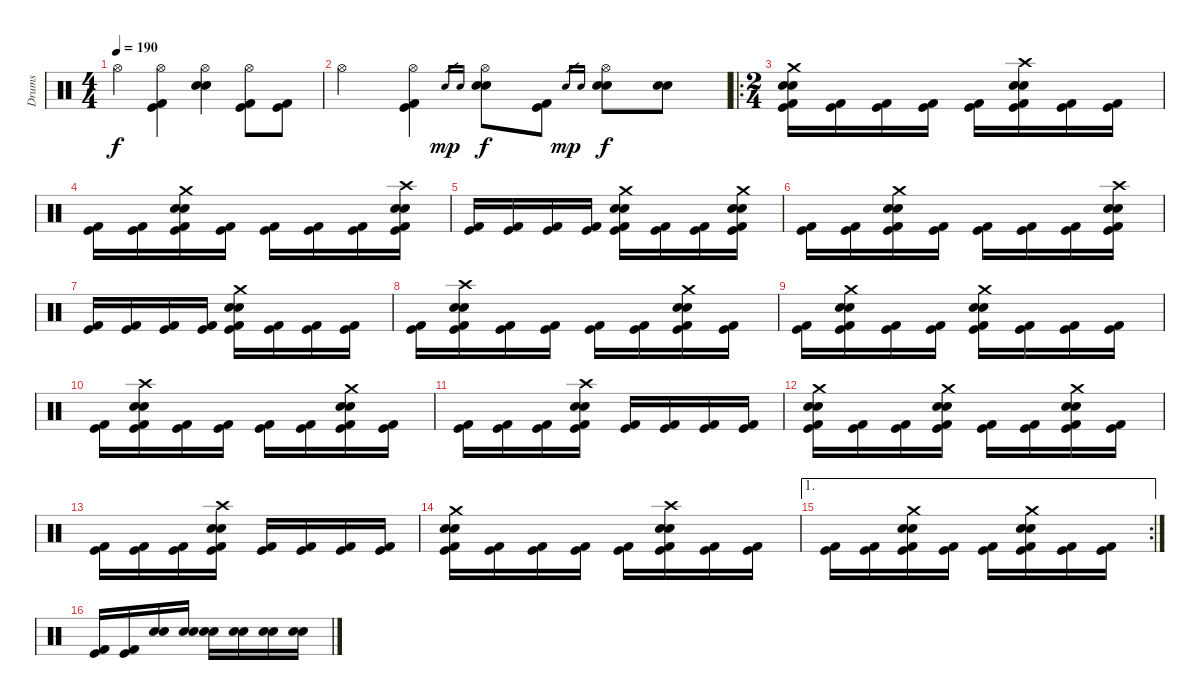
\track ("Drums" "Drums") {instrument percussion}
\staff {score}
\articulation defaults
\ts (4 4)
\tempo 190
\clef neutral
\ks c "Hi-Hat (open)".4{dy f}
("Hi-Hat (open)" "Kick (hit) 2" "Kick (hit)").4 ("Hi-Hat (open)" "Snare (hit) 2" "Snare (hit) 2").4 ("Hi-Hat (open)" "Kick (hit) 2" "Kick (hit)").8 ("Kick (hit) 2" "Kick (hit)").8 |
"Hi-Hat (open)".4 ("Hi-Hat (open)" "Kick (hit) 2" "Kick (hit)").4 "Snare (hit) 2".16{gr dy mp} "Snare (hit) 2".16{gr} ("Hi-Hat (open)" "Snare (hit) 2" "Snare (hit) 2").8{dy f} ("Kick (hit) 2" "Kick (hit)").8 "Snare (hit) 2".16{gr dy mp} "Snare (hit) 2".16{gr} ("Hi-Hat (open)" "Snare (hit) 2" "Snare (hit) 2").8{dy f} ("Snare (hit) 2" "Snare (hit) 2").8 |
\ro
\ts (2 4)
("Crash medium (hit)" "Snare (hit) 2" "Snare (hit) 2" "Kick (hit) 2" "Kick (hit)").16 ("Kick (hit) 2" "Kick (hit)").16 ("Kick (hit) 2" "Kick (hit)").16 ("Kick (hit) 2" "Kick (hit)").16 ("Kick (hit) 2" "Kick (hit)").16 ("Crash high (hit)" "Snare (hit) 2" "Snare (hit) 2" "Kick (hit) 2" "Kick (hit)").16 ("Kick (hit) 2" "Kick (hit)").16 ("Kick (hit) 2" "Kick (hit)").16 |
("Kick (hit) 2" "Kick (hit)").16 ("Kick (hit) 2" "Kick (hit)").16 ("Crash medium (hit)" "Snare (hit) 2" "Snare (hit) 2" "Kick (hit) 2" "Kick (hit)").16 ("Kick (hit) 2" "Kick (hit)").16 ("Kick (hit) 2" "Kick (hit)").16 ("Kick (hit) 2" "Kick (hit)").16 ("Kick (hit) 2" "Kick (hit)").16 ("Crash high (hit)" "Snare (hit) 2" "Snare (hit) 2" "Kick (hit) 2" "Kick (hit)").16 |
("Kick (hit) 2" "Kick (hit)").16 ("Kick (hit) 2" "Kick (hit)").16 ("Kick (hit) 2" "Kick (hit)").16 ("Kick (hit) 2" "Kick (hit)").16 ("Crash medium (hit)" "Snare (hit) 2" "Snare (hit) 2" "Kick (hit) 2" "Kick (hit)").16 ("Kick (hit) 2" "Kick (hit)").16 ("Kick (hit) 2" "Kick (hit)").16 ("Crash medium (hit)" "Snare (hit) 2" "Snare (hit) 2" "Kick (hit) 2" "Kick (hit)").16 |
("Kick (hit) 2" "Kick (hit)").16 ("Kick (hit) 2" "Kick (hit)").16 ("Crash medium (hit)" "Snare (hit) 2" "Snare (hit) 2" "Kick (hit) 2" "Kick (hit)").16 ("Kick (hit) 2" "Kick (hit)").16 ("Kick (hit) 2" "Kick (hit)").16 ("Kick (hit) 2" "Kick (hit)").16 ("Kick (hit) 2" "Kick (hit)").16 ("Crash high (hit)" "Snare (hit) 2" "Snare (hit) 2" "Kick (hit) 2" "Kick (hit)").16 |
("Kick (hit) 2" "Kick (hit)").16 ("Kick (hit) 2" "Kick (hit)").16 ("Kick (hit) 2" "Kick (hit)").16 ("Kick (hit) 2" "Kick (hit)").16 ("Crash medium (hit)" "Snare (hit) 2" "Snare (hit) 2" "Kick (hit) 2" "Kick (hit)").16 ("Kick (hit) 2" "Kick (hit)").16 ("Kick (hit) 2" "Kick (hit)").16 ("Kick (hit) 2" "Kick (hit)").16 |
("Kick (hit) 2" "Kick (hit)").16 ("Crash high (hit)" "Snare (hit) 2" "Snare (hit) 2" "Kick (hit) 2" "Kick (hit)").16 ("Kick (hit) 2" "Kick (hit)").16 ("Kick (hit) 2" "Kick (hit)").16 ("Kick (hit) 2" "Kick (hit)").16 ("Kick (hit) 2" "Kick (hit)").16 ("Crash medium (hit)" "Snare (hit) 2" "Snare (hit) 2" "Kick (hit) 2" "Kick (hit)").16 ("Kick (hit) 2" "Kick (hit)").16 |
("Kick (hit) 2" "Kick (hit)").16 ("Crash medium (hit)" "Snare (hit) 2" "Snare (hit) 2" "Kick (hit) 2" "Kick (hit)").16 ("Kick (hit) 2" "Kick (hit)").16 ("Kick (hit) 2" "Kick (hit)").16 ("Crash medium (hit)" "Snare (hit) 2" "Snare (hit) 2" "Kick (hit) 2" "Kick (hit)").16 ("Kick (hit) 2" "Kick (hit)").16 ("Kick (hit) 2" "Kick (hit)").16 ("Kick (hit) 2" "Kick (hit)").16 |
("Kick (hit) 2" "Kick (hit)").16 ("Crash high (hit)" "Snare (hit) 2" "Snare (hit) 2" "Kick (hit) 2" "Kick (hit)").16 ("Kick (hit) 2" "Kick (hit)").16 ("Kick (hit) 2" "Kick (hit)").16 ("Kick (hit) 2" "Kick (hit)").16 ("Kick (hit) 2" "Kick (hit)").16 ("Crash medium (hit)" "Snare (hit) 2" "Snare (hit) 2" "Kick (hit) 2" "Kick (hit)").16 ("Kick (hit) 2" "Kick (hit)").16 |
("Kick (hit) 2" "Kick (hit)").16 ("Kick (hit) 2" "Kick (hit)").16 ("Kick (hit) 2" "Kick (hit)").16 ("Crash high (hit)" "Snare (hit) 2" "Snare (hit) 2" "Kick (hit) 2" "Kick (hit)").16 ("Kick (hit) 2" "Kick (hit)").16 ("Kick (hit) 2" "Kick (hit)").16 ("Kick (hit) 2" "Kick (hit)").16 ("Kick (hit) 2" "Kick (hit)").16 |
("Crash medium (hit)" "Snare (hit) 2" "Snare (hit) 2" "Kick (hit) 2" "Kick (hit)").16 ("Kick (hit) 2" "Kick (hit)").16 ("Kick (hit) 2" "Kick (hit)").16 ("Crash medium (hit)" "Snare (hit) 2" "Snare (hit) 2" "Kick (hit) 2" "Kick (hit)").16 ("Kick (hit) 2" "Kick (hit)").16 ("Kick (hit) 2" "Kick (hit)").16 ("Crash medium (hit)" "Snare (hit) 2" "Snare (hit) 2" "Kick (hit) 2" "Kick (hit)").16 ("Kick (hit) 2" "Kick (hit)").16 |
("Kick (hit) 2" "Kick (hit)").16 ("Kick (hit) 2" "Kick (hit)").16 ("Kick (hit) 2" "Kick (hit)").16 ("Crash high (hit)" "Snare (hit) 2" "Snare (hit) 2" "Kick (hit) 2" "Kick (hit)").16 ("Kick (hit) 2" "Kick (hit)").16 ("Kick (hit) 2" "Kick (hit)").16 ("Kick (hit) 2" "Kick (hit)").16 ("Kick (hit) 2" "Kick (hit)").16 |
("Crash medium (hit)" "Snare (hit) 2" "Snare (hit) 2" "Kick (hit) 2" "Kick (hit)").16 ("Kick (hit) 2" "Kick (hit)").16 ("Kick (hit) 2" "Kick (hit)").16 ("Kick (hit) 2" "Kick (hit)").16 ("Kick (hit) 2" "Kick (hit)").16 ("Crash high (hit)" "Snare (hit) 2" "Snare (hit) 2" "Kick (hit) 2" "Kick (hit)").16 ("Kick (hit) 2" "Kick (hit)").16 ("Kick (hit) 2" "Kick (hit)").16 |
\ae 1
\rc 2
("Kick (hit) 2" "Kick (hit)").16 ("Kick (hit) 2" "Kick (hit)").16 ("Crash medium (hit)" "Snare (hit) 2" "Snare (hit) 2" "Kick (hit) 2" "Kick (hit)").16 ("Kick (hit) 2" "Kick (hit)").16 ("Kick (hit) 2" "Kick (hit)").16 ("Crash medium (hit)" "Snare (hit) 2" "Snare (hit) 2" "Kick (hit) 2" "Kick (hit)").16 ("Kick (hit) 2" "Kick (hit)").16 ("Kick (hit) 2" "Kick (hit)").16 |
("Kick (hit) 2" "Kick (hit)").16 ("Kick (hit) 2" "Kick (hit)").16 ("Snare (hit) 2" "Snare (hit) 2").16 ("Snare (hit) 2" "Snare (hit) 2").16 ("Snare (hit) 2" "Snare (hit) 2").16 ("Snare (hit) 2" "Snare (hit) 2").16 ("Snare (hit) 2" "Snare (hit) 2").16 ("Snare (hit) 2" "Snare (hit) 2").16
